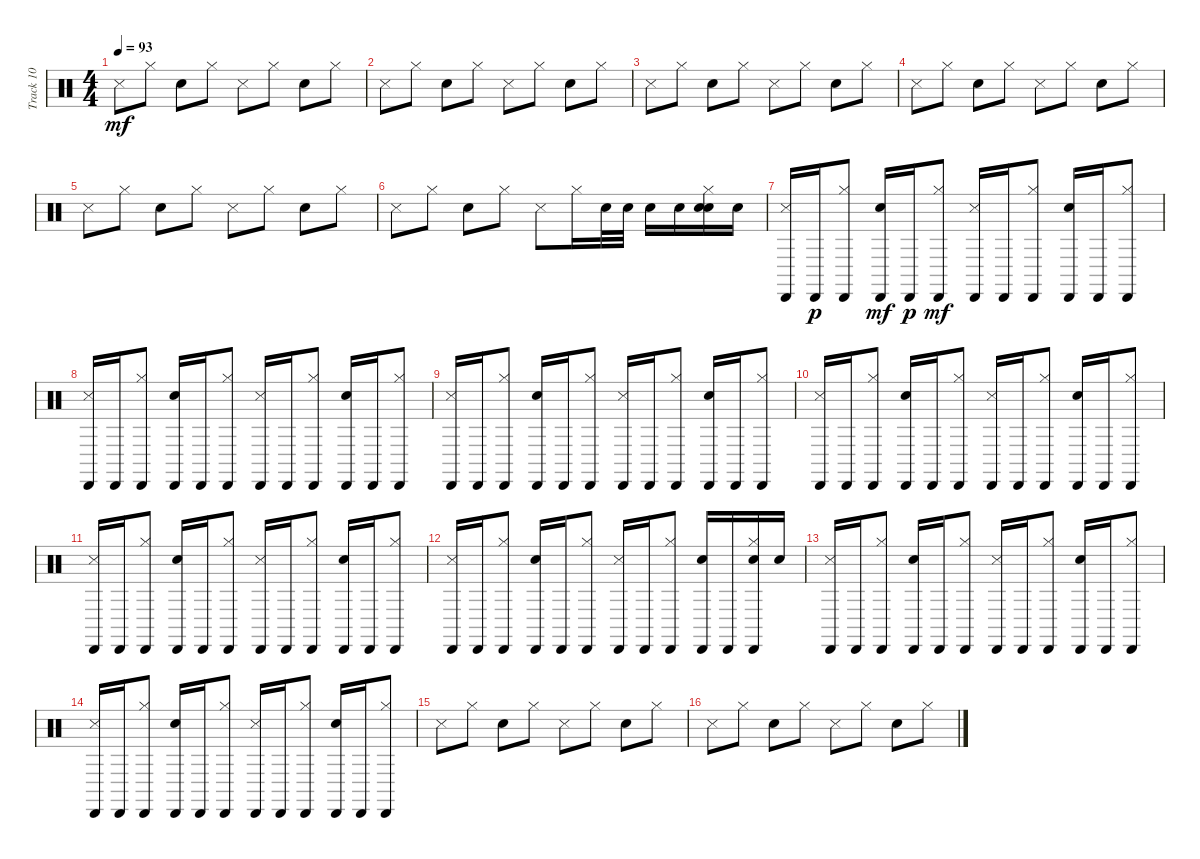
\track ("Track 10" "Track 10") {instrument percussion}
\staff {score}
\articulation defaults
\ts (4 4)
\tempo 93
\clef neutral
\ks c "Metronome (hit)".8{dy mf} "Hi-Hat (closed)".8 "Electric Snare (hit)".8 "Hi-Hat (closed)".8 "Metronome (hit)".8 "Hi-Hat (closed)".8 "Electric Snare (hit)".8 "Hi-Hat (closed)".8
|
"Metronome (hit)".8 "Hi-Hat (closed)".8 "Electric Snare (hit)".8 "Hi-Hat (closed)".8 "Metronome (hit)".8 "Hi-Hat (closed)".8 "Electric Snare (hit)".8 "Hi-Hat (closed)".8 |
"Metronome (hit)".8 "Hi-Hat (closed)".8 "Electric Snare (hit)".8 "Hi-Hat (closed)".8 "Metronome (hit)".8 "Hi-Hat (closed)".8 "Electric Snare (hit)".8 "Hi-Hat (closed)".8 |
"Metronome (hit)".8 "Hi-Hat (closed)".8 "Electric Snare (hit)".8 "Hi-Hat (closed)".8 "Metronome (hit)".8 "Hi-Hat (closed)".8 "Electric Snare (hit)".8 "Hi-Hat (closed)".8 |
"Metronome (hit)".8 "Hi-Hat (closed)".8 "Electric Snare (hit)".8 "Hi-Hat (closed)".8 "Metronome (hit)".8 "Hi-Hat (closed)".8 "Electric Snare (hit)".8 "Hi-Hat (closed)".8 |
"Metronome (hit)".8 "Hi-Hat (closed)".8 "Electric Snare (hit)".8 "Hi-Hat (closed)".8 "Metronome (hit)".8 "Hi-Hat (closed)".16 "Electric Snare (hit)".32 "Electric Snare (hit)".32 "Electric Snare (hit)".16 "Electric Snare (hit)".16 ("Electric Snare (hit)" "Snare (hit)" "Hi-Hat (closed)").16 "Snare (hit)".16 |
("Cabasa (hit)" "Metronome (hit)").16 "Cabasa (hit)".16{dy p} ("Hi-Hat (closed)" "Cabasa (hit)").8 ("Cabasa (hit)" "Electric Snare (hit)").16{dy mf} "Cabasa (hit)".16{dy p} ("Cabasa (hit)" "Hi-Hat (closed)").8{dy mf} ("Metronome (hit)" "Cabasa (hit)").16 "Cabasa (hit)".16 ("Cabasa (hit)" "Hi-Hat (closed)").8 ("Electric Snare (hit)" "Cabasa (hit)").16 "Cabasa (hit)".16 ("Hi-Hat (closed)" "Cabasa (hit)").8 |
("Metronome (hit)" "Cabasa (hit)").16 "Cabasa (hit)".16 ("Hi-Hat (closed)" "Cabasa (hit)").8 ("Electric Snare (hit)" "Cabasa (hit)").16 "Cabasa (hit)".16 ("Cabasa (hit)" "Hi-Hat (closed)").8 ("Metronome (hit)" "Cabasa (hit)").16 "Cabasa (hit)".16 ("Hi-Hat (closed)" "Cabasa (hit)").8 ("Electric Snare (hit)" "Cabasa (hit)").16 "Cabasa (hit)".16 ("Cabasa (hit)" "Hi-Hat (closed)").8 |
("Metronome (hit)" "Cabasa (hit)").16 "Cabasa (hit)".16 ("Hi-Hat (closed)" "Cabasa (hit)").8 ("Cabasa (hit)" "Electric Snare (hit)").16 "Cabasa (hit)".16 ("Hi-Hat (closed)" "Cabasa (hit)").8 ("Metronome (hit)" "Cabasa (hit)").16 "Cabasa (hit)".16 ("Cabasa (hit)" "Hi-Hat (closed)").8 ("Electric Snare (hit)" "Cabasa (hit)").16 "Cabasa (hit)".16 ("Hi-Hat (closed)" "Cabasa (hit)").8 |
("Cabasa (hit)" "Metronome (hit)").16 "Cabasa (hit)".16 ("Cabasa (hit)" "Hi-Hat (closed)").8 ("Electric Snare (hit)" "Cabasa (hit)").16 "Cabasa (hit)".16 ("Hi-Hat (closed)" "Cabasa (hit)").8 ("Metronome (hit)" "Cabasa (hit)").16 "Cabasa (hit)".16 ("Cabasa (hit)" "Hi-Hat (closed)").8 ("Cabasa (hit)" "Electric Snare (hit)").16 "Cabasa (hit)".16 ("Cabasa (hit)" "Hi-Hat (closed)").8 |
("Cabasa (hit)" "Metronome (hit)").16 "Cabasa (hit)".16 ("Hi-Hat (closed)" "Cabasa (hit)").8 ("Cabasa (hit)" "Electric Snare (hit)").16 "Cabasa (hit)".16 ("Hi-Hat (closed)" "Cabasa (hit)").8 ("Metronome (hit)" "Cabasa (hit)").16 "Cabasa (hit)".16 ("Cabasa (hit)" "Hi-Hat (closed)").8 ("Electric Snare (hit)" "Cabasa (hit)").16 "Cabasa (hit)".16 ("Cabasa (hit)" "Hi-Hat (closed)").8 |
("Cabasa (hit)" "Metronome (hit)").16 "Cabasa (hit)".16 ("Cabasa (hit)" "Hi-Hat (closed)").8 ("Cabasa (hit)" "Electric Snare (hit)").16 "Cabasa (hit)".16 ("Cabasa (hit)" "Hi-Hat (closed)").8 ("Metronome (hit)" "Cabasa (hit)").16 "Cabasa (hit)".16 ("Hi-Hat (closed)" "Cabasa (hit)").8 ("Cabasa (hit)" "Electric Snare (hit)").16 "Cabasa (hit)".16 ("Hi-Hat (closed)" "Snare (hit)" "Cabasa (hit)").16 "Snare (hit)".16 |
("Metronome (hit)" "Cabasa (hit)").16 "Cabasa (hit)".16 ("Cabasa (hit)" "Hi-Hat (closed)").8 ("Cabasa (hit)" "Electric Snare (hit)").16 "Cabasa (hit)".16 ("Cabasa (hit)" "Hi-Hat (closed)").8 ("Metronome (hit)" "Cabasa (hit)").16 "Cabasa (hit)".16 ("Cabasa (hit)" "Hi-Hat (closed)").8 ("Cabasa (hit)" "Electric Snare (hit)").16 "Cabasa (hit)".16 ("Cabasa (hit)" "Hi-Hat (closed)").8 |
("Metronome (hit)" "Cabasa (hit)").16 "Cabasa (hit)".16 ("Hi-Hat (closed)" "Cabasa (hit)").8 ("Cabasa (hit)" "Electric Snare (hit)").16 "Cabasa (hit)".16 ("Cabasa (hit)" "Hi-Hat (closed)").8 ("Metronome (hit)" "Cabasa (hit)").16 "Cabasa (hit)".16 ("Cabasa (hit)" "Hi-Hat (closed)").8 ("Cabasa (hit)" "Electric Snare (hit)").16 "Cabasa (hit)".16 ("Cabasa (hit)" "Hi-Hat (closed)").8 |
"Metronome (hit)".8 "Hi-Hat (closed)".8 "Electric Snare (hit)".8 "Hi-Hat (closed)".8 "Metronome (hit)".8 "Hi-Hat (closed)".8 "Electric Snare (hit)".8 "Hi-Hat (closed)".8 |
"Metronome (hit)".8 "Hi-Hat (closed)".8 "Electric Snare (hit)".8 "Hi-Hat (closed)".8 "Metronome (hit)".8 "Hi-Hat (closed)".8 "Electric Snare (hit)".8 "Hi-Hat (closed)".8
